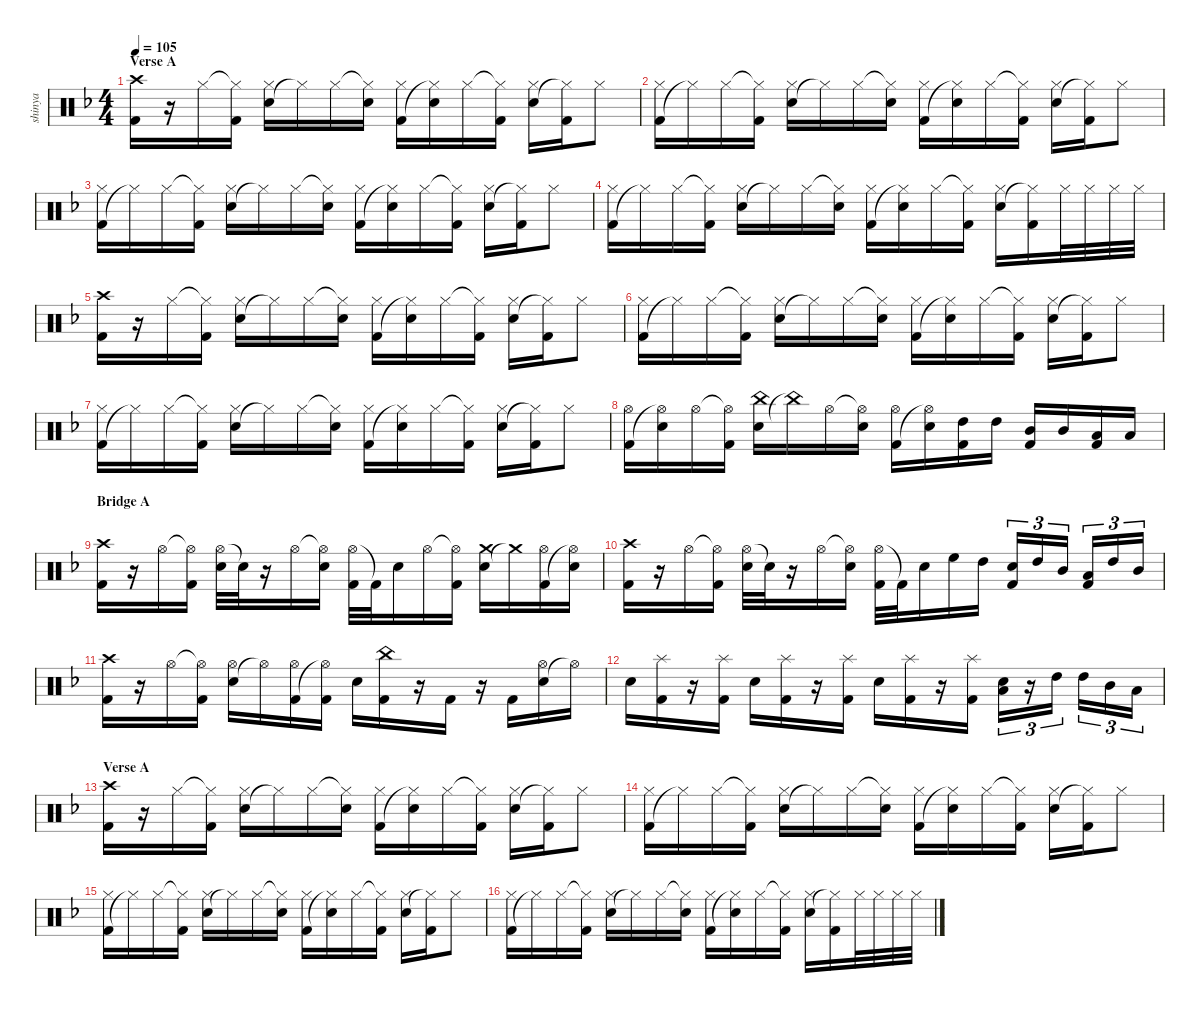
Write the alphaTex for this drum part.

\defaultSystemsLayout 4
\hideDynamics
\bracketExtendMode nobrackets
\otherSystemsTrackNameOrientation horizontal
\track ("Shinya" "shinya") {defaultSystemsLayout 4 instrument percussion}
\staff {score}
\articulation defaults
\ts (4 4)
\section ("" "Verse A")
\tempo 105
\clef neutral
\scale
1.06363
\ks dminor
("Kick (hit) 2"{acc forcenatural} "Crash high (hit)"{acc #}).16{dy fff} r.16 "Hi-Hat (closed)"{acc #}.16 ("Hi-Hat (closed)"{t acc #} "Kick (hit) 2"{acc forcenatural}).16 ("Snare (hit) 2"{acc forcenatural} "Hi-Hat (closed)"{acc #}).16 "Hi-Hat (closed)"{t acc #}.16 "Hi-Hat (closed)"{acc #}.16 ("Hi-Hat (closed)"{t acc #} "Snare (hit) 2"{acc forcenatural}).16 ("Kick (hit) 2"{acc forcenatural} "Hi-Hat (closed)"{acc #}).16 ("Hi-Hat (closed)"{t acc #} "Snare (hit) 2"{acc forcenatural}).16 "Hi-Hat (closed)"{acc #}.16 ("Hi-Hat (closed)"{t acc #} "Kick (hit) 2"{acc forcenatural}).16 ("Snare (hit) 2"{acc forcenatural} "Hi-Hat (closed)"{acc #}).16 ("Hi-Hat (closed)"{t acc #} "Kick (hit) 2"{acc forcenatural}).16 "Hi-Hat (closed)"{acc #}.8 |
\scale
0.97879 ("Kick (hit) 2"{acc forcenatural} "Hi-Hat (closed)"{acc #}).16 "Hi-Hat (closed)"{t acc #}.16 "Hi-Hat (closed)"{acc #}.16 ("Hi-Hat (closed)"{t acc #} "Kick (hit) 2"{acc forcenatural}).16 ("Snare (hit) 2"{acc forcenatural} "Hi-Hat (closed)"{acc #}).16 "Hi-Hat (closed)"{t acc #}.16 "Hi-Hat (closed)"{acc #}.16 ("Hi-Hat (closed)"{t acc #} "Snare (hit) 2"{acc forcenatural}).16 ("Kick (hit) 2"{acc forcenatural} "Hi-Hat (closed)"{acc #}).16 ("Hi-Hat (closed)"{t acc #} "Snare (hit) 2"{acc forcenatural}).16 "Hi-Hat (closed)"{acc #}.16 ("Hi-Hat (closed)"{t acc #} "Kick (hit) 2"{acc forcenatural}).16 ("Snare (hit) 2"{acc forcenatural} "Hi-Hat (closed)"{acc #}).16 ("Hi-Hat (closed)"{t acc #} "Kick (hit) 2"{acc forcenatural}).16 "Hi-Hat (closed)"{acc #}.8 |
\scale
0.97879 ("Kick (hit) 2"{acc forcenatural} "Hi-Hat (closed)"{acc #}).16 "Hi-Hat (closed)"{t acc #}.16 "Hi-Hat (closed)"{acc #}.16 ("Hi-Hat (closed)"{t acc #} "Kick (hit) 2"{acc forcenatural}).16 ("Snare (hit) 2"{acc forcenatural} "Hi-Hat (closed)"{acc #}).16 "Hi-Hat (closed)"{t acc #}.16 "Hi-Hat (closed)"{acc #}.16 ("Hi-Hat (closed)"{t acc #} "Snare (hit) 2"{acc forcenatural}).16 ("Kick (hit) 2"{acc forcenatural} "Hi-Hat (closed)"{acc #}).16 ("Hi-Hat (closed)"{t acc #} "Snare (hit) 2"{acc forcenatural}).16 "Hi-Hat (closed)"{acc #}.16 ("Hi-Hat (closed)"{t acc #} "Kick (hit) 2"{acc forcenatural}).16 ("Snare (hit) 2"{acc forcenatural} "Hi-Hat (closed)"{acc #}).16 ("Hi-Hat (closed)"{t acc #} "Kick (hit) 2"{acc forcenatural}).16 "Hi-Hat (closed)"{acc #}.8 |
\scale
0.97879 ("Kick (hit) 2"{acc forcenatural} "Hi-Hat (closed)"{acc #}).16 "Hi-Hat (closed)"{t acc #}.16 "Hi-Hat (closed)"{acc #}.16 ("Hi-Hat (closed)"{t acc #} "Kick (hit) 2"{acc forcenatural}).16 ("Snare (hit) 2"{acc forcenatural} "Hi-Hat (closed)"{acc #}).16 "Hi-Hat (closed)"{t acc #}.16 "Hi-Hat (closed)"{acc #}.16 ("Hi-Hat (closed)"{t acc #} "Snare (hit) 2"{acc forcenatural}).16 ("Kick (hit) 2"{acc forcenatural} "Hi-Hat (closed)"{acc #}).16 ("Hi-Hat (closed)"{t acc #} "Snare (hit) 2"{acc forcenatural}).16 "Hi-Hat (closed)"{acc #}.16 ("Hi-Hat (closed)"{t acc #} "Kick (hit) 2"{acc forcenatural}).16 ("Snare (hit) 2"{acc forcenatural} "Hi-Hat (closed)"{acc #}).16 ("Hi-Hat (closed)"{t acc #} "Kick (hit) 2"{acc forcenatural}).16 "Hi-Hat (closed)"{acc #}.32 "Hi-Hat (closed)"{acc #}.32 "Hi-Hat (closed)"{acc #}.32 "Hi-Hat (closed)"{acc #}.32 |
\scale
1.05921 ("Kick (hit) 2"{acc forcenatural} "Crash high (hit)"{acc #}).16 r.16 "Hi-Hat (closed)"{acc #}.16 ("Hi-Hat (closed)"{t acc #} "Kick (hit) 2"{acc forcenatural}).16 ("Snare (hit) 2"{acc forcenatural} "Hi-Hat (closed)"{acc #}).16 "Hi-Hat (closed)"{t acc #}.16 "Hi-Hat (closed)"{acc #}.16 ("Hi-Hat (closed)"{t acc #} "Snare (hit) 2"{acc forcenatural}).16 ("Kick (hit) 2"{acc forcenatural} "Hi-Hat (closed)"{acc #}).16 ("Hi-Hat (closed)"{t acc #} "Snare (hit) 2"{acc forcenatural}).16 "Hi-Hat (closed)"{acc #}.16 ("Hi-Hat (closed)"{t acc #} "Kick (hit) 2"{acc forcenatural}).16 ("Snare (hit) 2"{acc forcenatural} "Hi-Hat (closed)"{acc #}).16 ("Hi-Hat (closed)"{t acc #} "Kick (hit) 2"{acc forcenatural}).16 "Hi-Hat (closed)"{acc #}.8 |
\scale
0.974368 ("Kick (hit) 2"{acc forcenatural} "Hi-Hat (closed)"{acc #}).16 "Hi-Hat (closed)"{t acc #}.16 "Hi-Hat (closed)"{acc #}.16 ("Hi-Hat (closed)"{t acc #} "Kick (hit) 2"{acc forcenatural}).16 ("Snare (hit) 2"{acc forcenatural} "Hi-Hat (closed)"{acc #}).16 "Hi-Hat (closed)"{t acc #}.16 "Hi-Hat (closed)"{acc #}.16 ("Hi-Hat (closed)"{t acc #} "Snare (hit) 2"{acc forcenatural}).16 ("Kick (hit) 2"{acc forcenatural} "Hi-Hat (closed)"{acc #}).16 ("Hi-Hat (closed)"{t acc #} "Snare (hit) 2"{acc forcenatural}).16 "Hi-Hat (closed)"{acc #}.16 ("Hi-Hat (closed)"{t acc #} "Kick (hit) 2"{acc forcenatural}).16 ("Snare (hit) 2"{acc forcenatural} "Hi-Hat (closed)"{acc #}).16 ("Hi-Hat (closed)"{t acc #} "Kick (hit) 2"{acc forcenatural}).16 "Hi-Hat (closed)"{acc #}.8 |
\scale
0.974368 ("Kick (hit) 2"{acc forcenatural} "Hi-Hat (closed)"{acc #}).16 "Hi-Hat (closed)"{t acc #}.16 "Hi-Hat (closed)"{acc #}.16 ("Hi-Hat (closed)"{t acc #} "Kick (hit) 2"{acc forcenatural}).16 ("Snare (hit) 2"{acc forcenatural} "Hi-Hat (closed)"{acc #}).16 "Hi-Hat (closed)"{t acc #}.16 "Hi-Hat (closed)"{acc #}.16 ("Hi-Hat (closed)"{t acc #} "Snare (hit) 2"{acc forcenatural}).16 ("Kick (hit) 2"{acc forcenatural} "Hi-Hat (closed)"{acc #}).16 ("Hi-Hat (closed)"{t acc #} "Snare (hit) 2"{acc forcenatural}).16 "Hi-Hat (closed)"{acc #}.16 ("Hi-Hat (closed)"{t acc #} "Kick (hit) 2"{acc forcenatural}).16 ("Snare (hit) 2"{acc forcenatural} "Hi-Hat (closed)"{acc #}).16 ("Hi-Hat (closed)"{t acc #} "Kick (hit) 2"{acc forcenatural}).16 "Hi-Hat (closed)"{acc #}.8 |
\scale
0.992053 ("Kick (hit) 2"{acc forcenatural} "Hi-Hat (open)"{acc #}).16 ("Hi-Hat (open)"{t acc #} "Snare (hit) 2"{acc forcenatural}).16 "Hi-Hat (open)"{acc #}.16 ("Hi-Hat (open)"{t acc #} "Kick (hit) 2"{acc forcenatural}).16 ("Snare (hit) 2"{acc forcenatural} "China (hit)"{acc forcenatural}).16 "China (hit)"{t acc forcenatural}.16 "Hi-Hat (open)"{acc #}.16 ("Hi-Hat (open)"{t acc #} "Snare (hit) 2"{acc forcenatural}).16 ("Kick (hit) 2"{acc forcenatural} "Hi-Hat (open)"{acc #}).16 ("Hi-Hat (open)"{t acc #} "Snare (hit) 2"{acc forcenatural}).16 ("Kick (hit) 2"{acc forcenatural} "High Tom (hit)"{acc forcenatural}).16 "High Tom (hit)"{acc forcenatural}.16 ("Kick (hit) 2"{acc forcenatural} "Mid Tom (hit)"{acc forcenatural}).16 "Mid Tom (hit)"{acc forcenatural}.16 ("Kick (hit) 2"{acc forcenatural} "Low Tom (hit)"{acc forcenatural}).16 "Low Tom (hit)"{acc forcenatural}.16 |
\section ("" "Bridge A")
\scale
1.05921 ("Kick (hit) 2"{acc forcenatural} "Crash high (hit)"{acc #}).16 r.16 "Hi-Hat (open)"{acc #}.16 ("Hi-Hat (open)"{t acc #} "Kick (hit) 2"{acc forcenatural}).16 ("Hi-Hat (open)"{acc #} "Snare (hit) 2"{acc forcenatural}).32 "Snare (hit) 2"{t acc forcenatural}.32 r.16 "Hi-Hat (open)"{acc #}.16 ("Hi-Hat (open)"{t acc #} "Snare (hit) 2"{acc forcenatural}).16 ("Hi-Hat (open)"{acc #} "Kick (hit) 2"{acc forcenatural}).32 "Kick (hit) 2"{t acc forcenatural}.32 "Snare (hit) 2"{acc forcenatural}.16{dy f} "Hi-Hat (open)"{acc #}.16{dy fff} ("Hi-Hat (open)"{t acc #} "Kick (hit) 2"{acc forcenatural}).16 ("Snare (hit) 2"{acc forcenatural} "Crash medium (hit)"{acc forcenatural}).16 "Crash medium (hit)"{t acc forcenatural}.16 ("Kick (hit) 2"{acc forcenatural} "Hi-Hat (open)"{acc #}).16 ("Hi-Hat (open)"{t acc #} "Snare (hit) 2"{acc forcenatural}).16 |
\scale
0.974368 ("Kick (hit) 2"{acc forcenatural} "Crash high (hit)"{acc #}).16 r.16 "Hi-Hat (open)"{acc #}.16 ("Hi-Hat (open)"{t acc #} "Kick (hit) 2"{acc forcenatural}).16 ("Hi-Hat (open)"{acc #} "Snare (hit) 2"{acc forcenatural}).32 "Snare (hit) 2"{t acc forcenatural}.32 r.16 "Hi-Hat (open)"{acc #}.16 ("Hi-Hat (open)"{t acc #} "Snare (hit) 2"{acc forcenatural}).16 ("Hi-Hat (open)"{acc #} "Kick (hit) 2"{acc forcenatural}).32 "Kick (hit) 2"{t acc forcenatural}.32 "Snare (hit) 2"{acc forcenatural}.16{dy f} "High Floor Tom (hit)"{acc forcenatural}.16{dy fff} "High Tom (hit)"{acc forcenatural}.16 ("Kick (hit) 2"{acc forcenatural} "Snare (hit) 2"{acc forcenatural}).16{tu (3 2)} "High Tom (hit)"{acc forcenatural}.16{tu (3 2)} "Mid Tom (hit)"{acc forcenatural}.16{tu (3 2)} ("Kick (hit) 2"{acc forcenatural} "Low Tom (hit)"{acc forcenatural}).16{tu (3 2)} "High Tom (hit)"{acc forcenatural}.16{tu (3 2)} "Mid Tom (hit)"{acc forcenatural}.16{tu (3 2)} |
\scale
0.974368 ("Kick (hit) 2"{acc forcenatural} "Crash high (hit)"{acc #}).16 r.16 "Hi-Hat (open)"{acc #}.16 ("Hi-Hat (open)"{t acc #} "Kick (hit) 2"{acc forcenatural}).16 ("Snare (hit) 2"{acc forcenatural} "Hi-Hat (open)"{acc #}).16 "Hi-Hat (open)"{t acc #}.16 ("Kick (hit) 2"{acc forcenatural} "Hi-Hat (open)"{acc #}).16 ("Hi-Hat (open)"{t acc #} "Kick (hit) 2"{acc forcenatural}).16 "Snare (hit) 2"{acc forcenatural}.16 ("Kick (hit) 2"{acc forcenatural} "China (hit)"{acc forcenatural}).16 r.16 "Kick (hit) 2"{acc forcenatural}.16 r.16 "Kick (hit) 2"{acc forcenatural}.16 ("Snare (hit) 2"{acc forcenatural} "Hi-Hat (open)"{acc #}).16 "Hi-Hat (open)"{t acc #}.16 |
\scale
0.992053 "Snare (hit) 2"{acc forcenatural}.16 ("Kick (hit) 2"{acc forcenatural} "Splash (hit)"{acc forcenatural}).16 r.16 ("Kick (hit) 2"{acc forcenatural} "Splash (hit)"{acc forcenatural}).16 "Snare (hit) 2"{acc forcenatural}.16 ("Kick (hit) 2"{acc forcenatural} "Splash (hit)"{acc forcenatural}).16 r.16 ("Kick (hit) 2"{acc forcenatural} "Splash (hit)"{acc forcenatural}).16 "Snare (hit) 2"{acc forcenatural}.16 ("Kick (hit) 2"{acc forcenatural} "Splash (hit)"{acc forcenatural}).16 r.16 ("Kick (hit) 2"{acc forcenatural} "Splash (hit)"{acc forcenatural}).16 ("Snare (hit) 2"{acc forcenatural} "Low Tom (hit)"{acc forcenatural}).16{tu (3 2)} r.16{tu (3 2)} "High Tom (hit)"{acc forcenatural}.16{tu (3 2) dy f} "High Tom (hit)"{acc forcenatural}.16{tu (3 2) dy fff} "Mid Tom (hit)"{acc forcenatural}.16{tu (3 2)} "Low Tom (hit)"{acc forcenatural}.16{tu (3 2)} |
\section ("" "Verse A")
\scale
1.06363 ("Kick (hit) 2"{acc forcenatural} "Crash high (hit)"{acc #}).16 r.16 "Hi-Hat (closed)"{acc #}.16 ("Hi-Hat (closed)"{t acc #} "Kick (hit) 2"{acc forcenatural}).16 ("Snare (hit) 2"{acc forcenatural} "Hi-Hat (closed)"{acc #}).16 "Hi-Hat (closed)"{t acc #}.16 "Hi-Hat (closed)"{acc #}.16 ("Hi-Hat (closed)"{t acc #} "Snare (hit) 2"{acc forcenatural}).16 ("Kick (hit) 2"{acc forcenatural} "Hi-Hat (closed)"{acc #}).16 ("Hi-Hat (closed)"{t acc #} "Snare (hit) 2"{acc forcenatural}).16 "Hi-Hat (closed)"{acc #}.16 ("Hi-Hat (closed)"{t acc #} "Kick (hit) 2"{acc forcenatural}).16 ("Snare (hit) 2"{acc forcenatural} "Hi-Hat (closed)"{acc #}).16 ("Hi-Hat (closed)"{t acc #} "Kick (hit) 2"{acc forcenatural}).16 "Hi-Hat (closed)"{acc #}.8 |
\scale
0.97879 ("Kick (hit) 2"{acc forcenatural} "Hi-Hat (closed)"{acc #}).16 "Hi-Hat (closed)"{t acc #}.16 "Hi-Hat (closed)"{acc #}.16 ("Hi-Hat (closed)"{t acc #} "Kick (hit) 2"{acc forcenatural}).16 ("Snare (hit) 2"{acc forcenatural} "Hi-Hat (closed)"{acc #}).16 "Hi-Hat (closed)"{t acc #}.16 "Hi-Hat (closed)"{acc #}.16 ("Hi-Hat (closed)"{t acc #} "Snare (hit) 2"{acc forcenatural}).16 ("Kick (hit) 2"{acc forcenatural} "Hi-Hat (closed)"{acc #}).16 ("Hi-Hat (closed)"{t acc #} "Snare (hit) 2"{acc forcenatural}).16 "Hi-Hat (closed)"{acc #}.16 ("Hi-Hat (closed)"{t acc #} "Kick (hit) 2"{acc forcenatural}).16 ("Snare (hit) 2"{acc forcenatural} "Hi-Hat (closed)"{acc #}).16 ("Hi-Hat (closed)"{t acc #} "Kick (hit) 2"{acc forcenatural}).16 "Hi-Hat (closed)"{acc #}.8 |
\scale
0.97879 ("Kick (hit) 2"{acc forcenatural} "Hi-Hat (closed)"{acc #}).16 "Hi-Hat (closed)"{t acc #}.16 "Hi-Hat (closed)"{acc #}.16 ("Hi-Hat (closed)"{t acc #} "Kick (hit) 2"{acc forcenatural}).16 ("Snare (hit) 2"{acc forcenatural} "Hi-Hat (closed)"{acc #}).16 "Hi-Hat (closed)"{t acc #}.16 "Hi-Hat (closed)"{acc #}.16 ("Hi-Hat (closed)"{t acc #} "Snare (hit) 2"{acc forcenatural}).16 ("Kick (hit) 2"{acc forcenatural} "Hi-Hat (closed)"{acc #}).16 ("Hi-Hat (closed)"{t acc #} "Snare (hit) 2"{acc forcenatural}).16 "Hi-Hat (closed)"{acc #}.16 ("Hi-Hat (closed)"{t acc #} "Kick (hit) 2"{acc forcenatural}).16 ("Snare (hit) 2"{acc forcenatural} "Hi-Hat (closed)"{acc #}).16 ("Hi-Hat (closed)"{t acc #} "Kick (hit) 2"{acc forcenatural}).16 "Hi-Hat (closed)"{acc #}.8 |
\scale
0.97879 ("Kick (hit) 2"{acc forcenatural} "Hi-Hat (closed)"{acc #}).16 "Hi-Hat (closed)"{t acc #}.16 "Hi-Hat (closed)"{acc #}.16 ("Hi-Hat (closed)"{t acc #} "Kick (hit) 2"{acc forcenatural}).16 ("Snare (hit) 2"{acc forcenatural} "Hi-Hat (closed)"{acc #}).16 "Hi-Hat (closed)"{t acc #}.16 "Hi-Hat (closed)"{acc #}.16 ("Hi-Hat (closed)"{t acc #} "Snare (hit) 2"{acc forcenatural}).16 ("Kick (hit) 2"{acc forcenatural} "Hi-Hat (closed)"{acc #}).16 ("Hi-Hat (closed)"{t acc #} "Snare (hit) 2"{acc forcenatural}).16 "Hi-Hat (closed)"{acc #}.16 ("Hi-Hat (closed)"{t acc #} "Kick (hit) 2"{acc forcenatural}).16 ("Snare (hit) 2"{acc forcenatural} "Hi-Hat (closed)"{acc #}).16 ("Hi-Hat (closed)"{t acc #} "Kick (hit) 2"{acc forcenatural}).16 "Hi-Hat (closed)"{acc #}.32 "Hi-Hat (closed)"{acc #}.32 "Hi-Hat (closed)"{acc #}.32 "Hi-Hat (closed)"{acc #}.32
